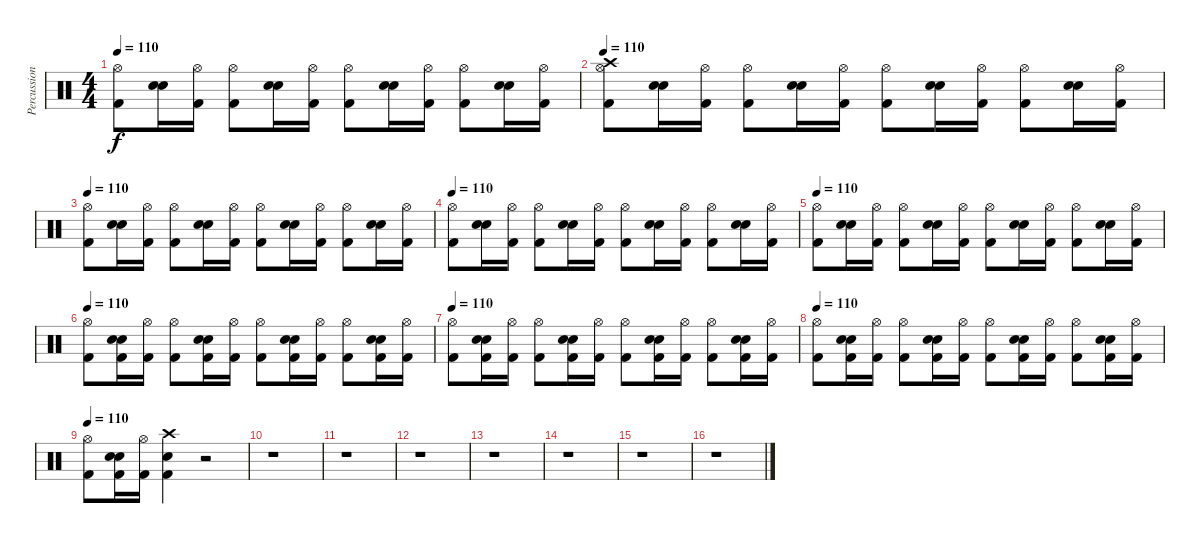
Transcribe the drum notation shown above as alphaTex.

\track ("Percussions" "Percussion") {instrument percussion}
\staff {score}
\articulation defaults
\ts (4 4)
\tempo 110
\clef neutral
\ks c
("Kick (hit) 2" "Hi-Hat (open)").8{dy f} ("Snare (hit) 2" "Snare (hit) 2").16 ("Kick (hit) 2" "Hi-Hat (open)").16 ("Kick (hit) 2" "Hi-Hat (open)").8 ("Snare (hit) 2" "Snare (hit) 2").16 ("Kick (hit) 2" "Hi-Hat (open)").16 ("Kick (hit) 2" "Hi-Hat (open)").8 ("Snare (hit) 2" "Snare (hit) 2").16 ("Kick (hit) 2" "Hi-Hat (open)").16 ("Kick (hit) 2" "Hi-Hat (open)").8 ("Snare (hit) 2" "Snare (hit) 2").16 ("Kick (hit) 2" "Hi-Hat (open)").16 |
\tempo 110
("Kick (hit) 2" "Hi-Hat (open)" "Crash high (hit)").8 ("Snare (hit) 2" "Snare (hit) 2").16 ("Kick (hit) 2" "Hi-Hat (open)").16 ("Kick (hit) 2" "Hi-Hat (open)").8 ("Snare (hit) 2" "Snare (hit) 2").16 ("Kick (hit) 2" "Hi-Hat (open)").16 ("Kick (hit) 2" "Hi-Hat (open)").8 ("Snare (hit) 2" "Snare (hit) 2").16 ("Kick (hit) 2" "Hi-Hat (open)").16 ("Kick (hit) 2" "Hi-Hat (open)").8 ("Snare (hit) 2" "Snare (hit) 2").16 ("Kick (hit) 2" "Hi-Hat (open)").16 |
\tempo 110
("Kick (hit) 2" "Hi-Hat (open)").8 ("Snare (hit) 2" "Snare (hit) 2").16 ("Kick (hit) 2" "Hi-Hat (open)").16 ("Kick (hit) 2" "Hi-Hat (open)").8 ("Snare (hit) 2" "Snare (hit) 2").16 ("Kick (hit) 2" "Hi-Hat (open)").16 ("Kick (hit) 2" "Hi-Hat (open)").8 ("Snare (hit) 2" "Snare (hit) 2").16 ("Kick (hit) 2" "Hi-Hat (open)").16 ("Kick (hit) 2" "Hi-Hat (open)").8 ("Snare (hit) 2" "Snare (hit) 2").16 ("Kick (hit) 2" "Hi-Hat (open)").16 |
\tempo 110
("Kick (hit) 2" "Hi-Hat (open)").8 ("Snare (hit) 2" "Snare (hit) 2").16 ("Kick (hit) 2" "Hi-Hat (open)").16 ("Kick (hit) 2" "Hi-Hat (open)").8 ("Snare (hit) 2" "Snare (hit) 2").16 ("Kick (hit) 2" "Hi-Hat (open)").16 ("Kick (hit) 2" "Hi-Hat (open)").8 ("Snare (hit) 2" "Snare (hit) 2").16 ("Kick (hit) 2" "Hi-Hat (open)").16 ("Kick (hit) 2" "Hi-Hat (open)").8 ("Snare (hit) 2" "Snare (hit) 2").16 ("Kick (hit) 2" "Hi-Hat (open)").16 |
\tempo 110
("Kick (hit) 2" "Hi-Hat (open)").8 ("Snare (hit) 2" "Snare (hit) 2").16 ("Kick (hit) 2" "Hi-Hat (open)").16 ("Kick (hit) 2" "Hi-Hat (open)").8 ("Snare (hit) 2" "Snare (hit) 2").16 ("Kick (hit) 2" "Hi-Hat (open)").16 ("Kick (hit) 2" "Hi-Hat (open)").8 ("Snare (hit) 2" "Snare (hit) 2").16 ("Kick (hit) 2" "Hi-Hat (open)").16 ("Kick (hit) 2" "Hi-Hat (open)").8 ("Snare (hit) 2" "Snare (hit) 2").16 ("Kick (hit) 2" "Hi-Hat (open)").16 |
\tempo 110
("Kick (hit) 2" "Hi-Hat (open)").8 ("Kick (hit) 2" "Snare (hit) 2" "Snare (hit) 2").16 ("Kick (hit) 2" "Hi-Hat (open)").16 ("Kick (hit) 2" "Hi-Hat (open)").8 ("Kick (hit) 2" "Snare (hit) 2" "Snare (hit) 2").16 ("Kick (hit) 2" "Hi-Hat (open)").16 ("Kick (hit) 2" "Hi-Hat (open)").8 ("Kick (hit) 2" "Snare (hit) 2" "Snare (hit) 2").16 ("Kick (hit) 2" "Hi-Hat (open)").16 ("Kick (hit) 2" "Hi-Hat (open)").8 ("Kick (hit) 2" "Snare (hit) 2" "Snare (hit) 2").16 ("Kick (hit) 2" "Hi-Hat (open)").16 |
\tempo 110
("Kick (hit) 2" "Hi-Hat (open)").8 ("Kick (hit) 2" "Snare (hit) 2" "Snare (hit) 2").16 ("Kick (hit) 2" "Hi-Hat (open)").16 ("Kick (hit) 2" "Hi-Hat (open)").8 ("Kick (hit) 2" "Snare (hit) 2" "Snare (hit) 2").16 ("Kick (hit) 2" "Hi-Hat (open)").16 ("Kick (hit) 2" "Hi-Hat (open)").8 ("Kick (hit) 2" "Snare (hit) 2" "Snare (hit) 2").16 ("Kick (hit) 2" "Hi-Hat (open)").16 ("Kick (hit) 2" "Hi-Hat (open)").8 ("Kick (hit) 2" "Snare (hit) 2" "Snare (hit) 2").16 ("Kick (hit) 2" "Hi-Hat (open)").16 |
\tempo 110
("Kick (hit) 2" "Hi-Hat (open)").8 ("Kick (hit) 2" "Snare (hit) 2" "Snare (hit) 2").16 ("Kick (hit) 2" "Hi-Hat (open)").16 ("Kick (hit) 2" "Hi-Hat (open)").8 ("Kick (hit) 2" "Snare (hit) 2" "Snare (hit) 2").16 ("Kick (hit) 2" "Hi-Hat (open)").16 ("Kick (hit) 2" "Hi-Hat (open)").8 ("Kick (hit) 2" "Snare (hit) 2" "Snare (hit) 2").16 ("Kick (hit) 2" "Hi-Hat (open)").16 ("Kick (hit) 2" "Hi-Hat (open)").8 ("Kick (hit) 2" "Snare (hit) 2" "Snare (hit) 2").16 ("Kick (hit) 2" "Hi-Hat (open)").16 |
\tempo 110
("Kick (hit) 2" "Hi-Hat (open)").8 ("Kick (hit) 2" "Snare (hit) 2" "Snare (hit) 2").16 ("Kick (hit) 2" "Hi-Hat (open)").16 ("Kick (hit) 2" "Snare (hit) 2" "Crash high (hit)").4 r.2 |
r.1 |
r.1 |
r.1 |
r.1 |
r.1 |
r.1 |
r.1
